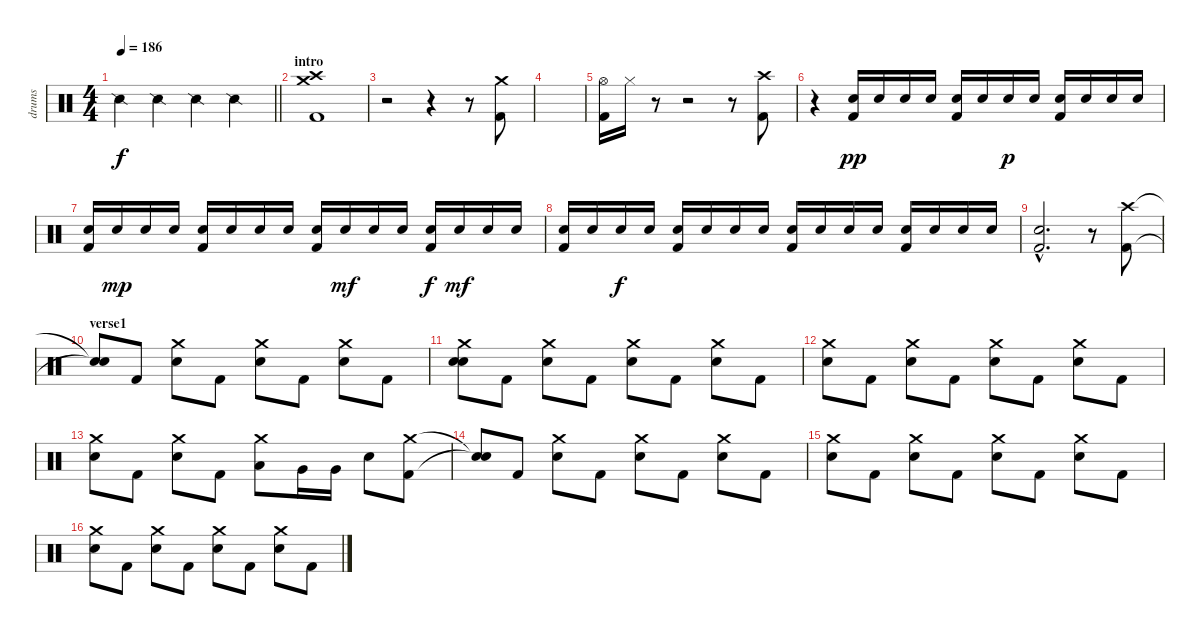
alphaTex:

\track ("drums" "drums") {instrument percussion}
\staff {score}
\articulation defaults
\ts (4 4)
\tempo 186
\clef neutral
\barLineRight lightlight
\ks c "Snare (side stick) 2".4{dy f} "Snare (side stick) 2".4 "Snare (side stick) 2".4 "Snare (side stick) 2".4
|
\section ("" "intro")
("Crash high (hit)" "Crash medium (hit)" "Kick (hit) 2").1 |
r.2 r.4 r.8 ("Crash medium (hit)" "Kick (hit) 2").8 |
|
("Hi-Hat (open)" "Kick (hit) 2").16 "Hi-Hat (closed)".16 r.8 r.2 r.8 ("Crash high (hit)" "Kick (hit) 2").8 |
r.4 ("Electric Snare (hit)" "Kick (hit) 2").16{dy pp} "Electric Snare (hit)".16 "Electric Snare (hit)".16 "Electric Snare (hit)".16 ("Electric Snare (hit)" "Kick (hit) 2").16 "Electric Snare (hit)".16 "Electric Snare (hit)".16{dy p} "Electric Snare (hit)".16 ("Electric Snare (hit)" "Kick (hit) 2").16 "Electric Snare (hit)".16 "Electric Snare (hit)".16 "Electric Snare (hit)".16 |
("Electric Snare (hit)" "Kick (hit) 2").16 "Electric Snare (hit)".16{dy mp} "Electric Snare (hit)".16 "Electric Snare (hit)".16 ("Electric Snare (hit)" "Kick (hit) 2").16 "Electric Snare (hit)".16 "Electric Snare (hit)".16 "Electric Snare (hit)".16 ("Electric Snare (hit)" "Kick (hit) 2").16 "Electric Snare (hit)".16{dy mf} "Electric Snare (hit)".16 "Electric Snare (hit)".16 ("Electric Snare (hit)" "Kick (hit) 2").16{dy f} "Electric Snare (hit)".16{dy mf} "Electric Snare (hit)".16 "Electric Snare (hit)".16 |
("Electric Snare (hit)" "Kick (hit) 2").16 "Electric Snare (hit)".16 "Electric Snare (hit)".16{dy f} "Electric Snare (hit)".16 ("Electric Snare (hit)" "Kick (hit) 2").16 "Electric Snare (hit)".16 "Electric Snare (hit)".16 "Electric Snare (hit)".16 ("Electric Snare (hit)" "Kick (hit) 2").16 "Electric Snare (hit)".16 "Electric Snare (hit)".16 "Electric Snare (hit)".16 ("Electric Snare (hit)" "Kick (hit) 2").16 "Electric Snare (hit)".16 "Electric Snare (hit)".16 "Electric Snare (hit)".16 |
("Electric Snare (hit)"{hac} "Kick (hit) 2"{hac}).2{d} r.8 ("Crash high (hit)" "Kick (hit) 2").8 |
\section ("" "verse1")
("Snare (hit)"{t} "Snare (hit)"{t}).8 "Kick (hit) 2".8 ("Crash medium (hit)" "Electric Snare (hit)").8 "Kick (hit) 2".8 ("Crash medium (hit)" "Electric Snare (hit)").8 "Kick (hit) 2".8 ("Crash medium (hit)" "Electric Snare (hit)").8 "Kick (hit) 2".8 |
("Crash medium (hit)" "Electric Snare (hit)" "Snare (hit)").8 "Kick (hit) 2".8 ("Crash medium (hit)" "Electric Snare (hit)").8 "Kick (hit) 2".8 ("Crash medium (hit)" "Electric Snare (hit)").8 "Kick (hit) 2".8 ("Crash medium (hit)" "Electric Snare (hit)").8 "Kick (hit) 2".8 |
("Crash medium (hit)" "Electric Snare (hit)").8 "Kick (hit) 2".8 ("Crash medium (hit)" "Electric Snare (hit)").8 "Kick (hit) 2".8 ("Crash medium (hit)" "Electric Snare (hit)").8 "Kick (hit) 2".8 ("Crash medium (hit)" "Electric Snare (hit)").8 "Kick (hit) 2".8 |
("Crash medium (hit)" "Electric Snare (hit)").8 "Kick (hit) 2".8 ("Crash medium (hit)" "Electric Snare (hit)").8 "Kick (hit) 2".8 ("Crash medium (hit)" "Low Tom (hit)").8 "Very Low Tom (hit)".16 "Very Low Tom (hit)".16 "Electric Snare (hit)".8 ("Crash medium (hit)" "Kick (hit) 2").8 |
("Snare (hit)"{t} "Snare (hit)"{t}).8 "Kick (hit) 2".8 ("Crash medium (hit)" "Electric Snare (hit)").8 "Kick (hit) 2".8 ("Crash medium (hit)" "Electric Snare (hit)").8 "Kick (hit) 2".8 ("Crash medium (hit)" "Electric Snare (hit)").8 "Kick (hit) 2".8 |
("Crash medium (hit)" "Electric Snare (hit)").8 "Kick (hit) 2".8 ("Crash medium (hit)" "Electric Snare (hit)").8 "Kick (hit) 2".8 ("Crash medium (hit)" "Electric Snare (hit)").8 "Kick (hit) 2".8 ("Crash medium (hit)" "Electric Snare (hit)").8 "Kick (hit) 2".8 |
("Crash medium (hit)" "Electric Snare (hit)").8 "Kick (hit) 2".8 ("Crash medium (hit)" "Electric Snare (hit)").8 "Kick (hit) 2".8 ("Crash medium (hit)" "Electric Snare (hit)").8 "Kick (hit) 2".8 ("Crash medium (hit)" "Electric Snare (hit)").8 "Kick (hit) 2".8
